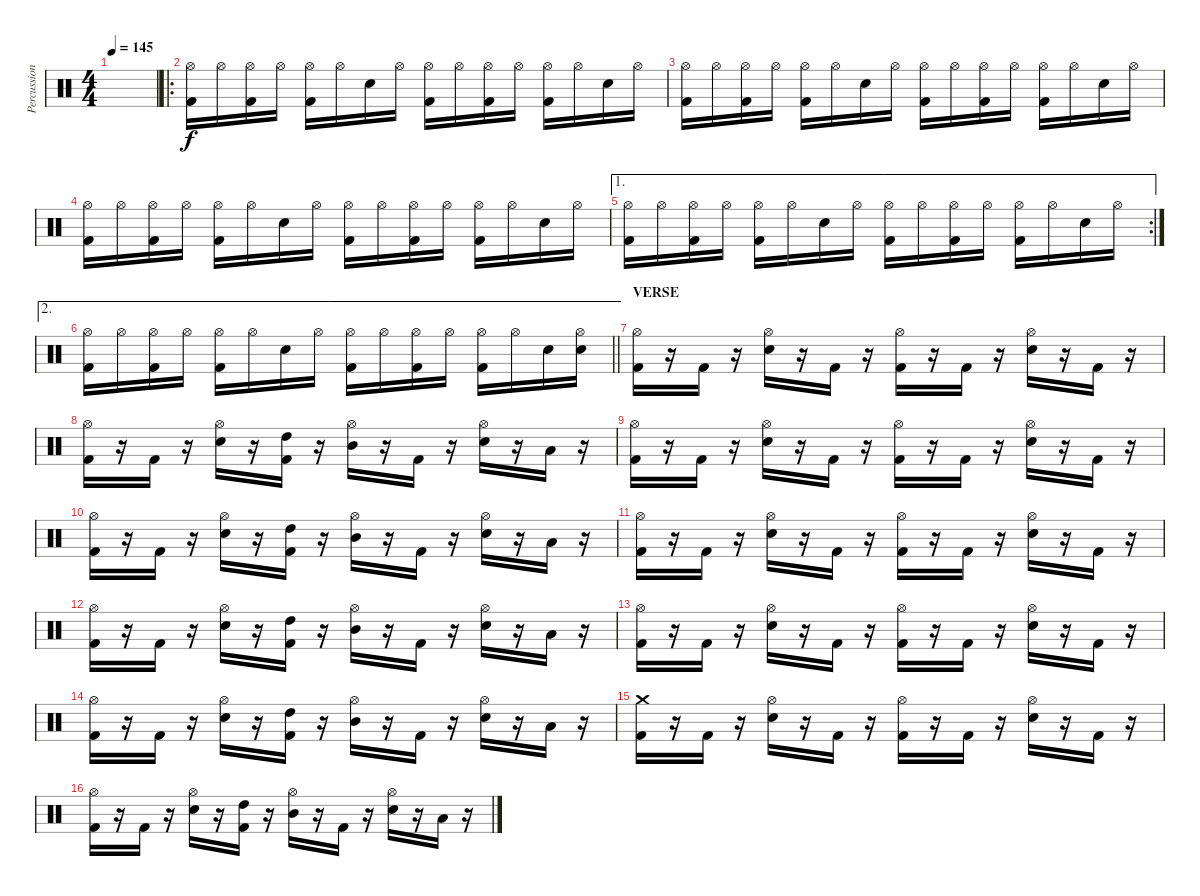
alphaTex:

\track ("Percussion" "Percussion") {instrument percussion}
\staff {score}
\articulation defaults
\ts (4 4)
\tempo 145
\clef neutral
\ks c
|
\ro
("Kick (hit) 2" "Hi-Hat (open)").16 "Hi-Hat (open)".16 ("Kick (hit) 2" "Hi-Hat (open)").16 "Hi-Hat (open)".16 ("Kick (hit) 2" "Hi-Hat (open)").16 "Hi-Hat (open)".16 "Snare (hit) 2".16 "Hi-Hat (open)".16 ("Kick (hit) 2" "Hi-Hat (open)").16 "Hi-Hat (open)".16 ("Kick (hit) 2" "Hi-Hat (open)").16 "Hi-Hat (open)".16 ("Kick (hit) 2" "Hi-Hat (open)").16 "Hi-Hat (open)".16 "Snare (hit) 2".16 "Hi-Hat (open)".16 |
("Kick (hit) 2" "Hi-Hat (open)").16 "Hi-Hat (open)".16 ("Kick (hit) 2" "Hi-Hat (open)").16 "Hi-Hat (open)".16 ("Kick (hit) 2" "Hi-Hat (open)").16 "Hi-Hat (open)".16 "Snare (hit) 2".16 "Hi-Hat (open)".16 ("Kick (hit) 2" "Hi-Hat (open)").16 "Hi-Hat (open)".16 ("Kick (hit) 2" "Hi-Hat (open)").16 "Hi-Hat (open)".16 ("Kick (hit) 2" "Hi-Hat (open)").16 "Hi-Hat (open)".16 "Snare (hit) 2".16 "Hi-Hat (open)".16 |
("Kick (hit) 2" "Hi-Hat (open)").16 "Hi-Hat (open)".16 ("Kick (hit) 2" "Hi-Hat (open)").16 "Hi-Hat (open)".16 ("Kick (hit) 2" "Hi-Hat (open)").16 "Hi-Hat (open)".16 "Snare (hit) 2".16 "Hi-Hat (open)".16 ("Kick (hit) 2" "Hi-Hat (open)").16 "Hi-Hat (open)".16 ("Kick (hit) 2" "Hi-Hat (open)").16 "Hi-Hat (open)".16 ("Kick (hit) 2" "Hi-Hat (open)").16 "Hi-Hat (open)".16 "Snare (hit) 2".16 "Hi-Hat (open)".16 |
\ae 1
\rc 2
("Kick (hit) 2" "Hi-Hat (open)").16 "Hi-Hat (open)".16 ("Kick (hit) 2" "Hi-Hat (open)").16 "Hi-Hat (open)".16 ("Kick (hit) 2" "Hi-Hat (open)").16 "Hi-Hat (open)".16 "Snare (hit) 2".16 "Hi-Hat (open)".16 ("Kick (hit) 2" "Hi-Hat (open)").16 "Hi-Hat (open)".16 ("Kick (hit) 2" "Hi-Hat (open)").16 "Hi-Hat (open)".16 ("Kick (hit) 2" "Hi-Hat (open)").16 "Hi-Hat (open)".16 "Snare (hit) 2".16 "Hi-Hat (open)".16 |
\ae 2
\barLineRight lightlight
("Kick (hit) 2" "Hi-Hat (open)").16 "Hi-Hat (open)".16 ("Kick (hit) 2" "Hi-Hat (open)").16 "Hi-Hat (open)".16 ("Kick (hit) 2" "Hi-Hat (open)").16 "Hi-Hat (open)".16 "Snare (hit) 2".16 "Hi-Hat (open)".16 ("Kick (hit) 2" "Hi-Hat (open)").16 "Hi-Hat (open)".16 ("Kick (hit) 2" "Hi-Hat (open)").16 "Hi-Hat (open)".16 ("Kick (hit) 2" "Hi-Hat (open)").16 "Hi-Hat (open)".16 "Snare (hit) 2".16 ("Snare (hit) 2" "Hi-Hat (open)").16 |
\section ("" "VERSE")
("Kick (hit) 2" "Hi-Hat (open)").16 r.16 "Kick (hit) 2".16 r.16 ("Snare (hit) 2" "Hi-Hat (open)").16 r.16 "Kick (hit) 2".16 r.16 ("Kick (hit) 2" "Hi-Hat (open)").16 r.16 "Kick (hit) 2".16 r.16 ("Snare (hit) 2" "Hi-Hat (open)").16 r.16 "Kick (hit) 2".16 r.16 |
("Kick (hit) 2" "Hi-Hat (open)").16 r.16 "Kick (hit) 2".16 r.16 ("Snare (hit) 2" "Hi-Hat (open)").16 r.16 ("High Tom (hit)" "Kick (hit) 2").16 r.16 ("Mid Tom (hit)" "Hi-Hat (open)").16 r.16 "Kick (hit) 2".16 r.16 ("Snare (hit) 2" "Hi-Hat (open)").16 r.16 "Low Floor Tom (hit)".16 r.16 |
("Kick (hit) 2" "Hi-Hat (open)").16 r.16 "Kick (hit) 2".16 r.16 ("Snare (hit) 2" "Hi-Hat (open)").16 r.16 "Kick (hit) 2".16 r.16 ("Kick (hit) 2" "Hi-Hat (open)").16 r.16 "Kick (hit) 2".16 r.16 ("Snare (hit) 2" "Hi-Hat (open)").16 r.16 "Kick (hit) 2".16 r.16 |
("Kick (hit) 2" "Hi-Hat (open)").16 r.16 "Kick (hit) 2".16 r.16 ("Snare (hit) 2" "Hi-Hat (open)").16 r.16 ("High Tom (hit)" "Kick (hit) 2").16 r.16 ("Mid Tom (hit)" "Hi-Hat (open)").16 r.16 "Kick (hit) 2".16 r.16 ("Snare (hit) 2" "Hi-Hat (open)").16 r.16 "Low Floor Tom (hit)".16 r.16 |
("Kick (hit) 2" "Hi-Hat (open)").16 r.16 "Kick (hit) 2".16 r.16 ("Snare (hit) 2" "Hi-Hat (open)").16 r.16 "Kick (hit) 2".16 r.16 ("Kick (hit) 2" "Hi-Hat (open)").16 r.16 "Kick (hit) 2".16 r.16 ("Snare (hit) 2" "Hi-Hat (open)").16 r.16 "Kick (hit) 2".16 r.16 |
("Kick (hit) 2" "Hi-Hat (open)").16 r.16 "Kick (hit) 2".16 r.16 ("Snare (hit) 2" "Hi-Hat (open)").16 r.16 ("High Tom (hit)" "Kick (hit) 2").16 r.16 ("Mid Tom (hit)" "Hi-Hat (open)").16 r.16 "Kick (hit) 2".16 r.16 ("Snare (hit) 2" "Hi-Hat (open)").16 r.16 "Low Floor Tom (hit)".16 r.16 |
("Kick (hit) 2" "Hi-Hat (open)").16 r.16 "Kick (hit) 2".16 r.16 ("Snare (hit) 2" "Hi-Hat (open)").16 r.16 "Kick (hit) 2".16 r.16 ("Kick (hit) 2" "Hi-Hat (open)").16 r.16 "Kick (hit) 2".16 r.16 ("Snare (hit) 2" "Hi-Hat (open)").16 r.16 "Kick (hit) 2".16 r.16 |
("Kick (hit) 2" "Hi-Hat (open)").16 r.16 "Kick (hit) 2".16 r.16 ("Snare (hit) 2" "Hi-Hat (open)").16 r.16 ("High Tom (hit)" "Kick (hit) 2").16 r.16 ("Mid Tom (hit)" "Hi-Hat (open)").16 r.16 "Kick (hit) 2".16 r.16 ("Snare (hit) 2" "Hi-Hat (open)").16 r.16 "Low Floor Tom (hit)".16 r.16 |
("Kick (hit) 2" "Crash medium (hit)").16 r.16 "Kick (hit) 2".16 r.16 ("Snare (hit) 2" "Hi-Hat (open)").16 r.16 "Kick (hit) 2".16 r.16 ("Kick (hit) 2" "Hi-Hat (open)").16 r.16 "Kick (hit) 2".16 r.16 ("Snare (hit) 2" "Hi-Hat (open)").16 r.16 "Kick (hit) 2".16 r.16 |
("Kick (hit) 2" "Hi-Hat (open)").16 r.16 "Kick (hit) 2".16 r.16 ("Snare (hit) 2" "Hi-Hat (open)").16 r.16 ("High Tom (hit)" "Kick (hit) 2").16 r.16 ("Mid Tom (hit)" "Hi-Hat (open)").16 r.16 "Kick (hit) 2".16 r.16 ("Snare (hit) 2" "Hi-Hat (open)").16 r.16 "Low Floor Tom (hit)".16 r.16
